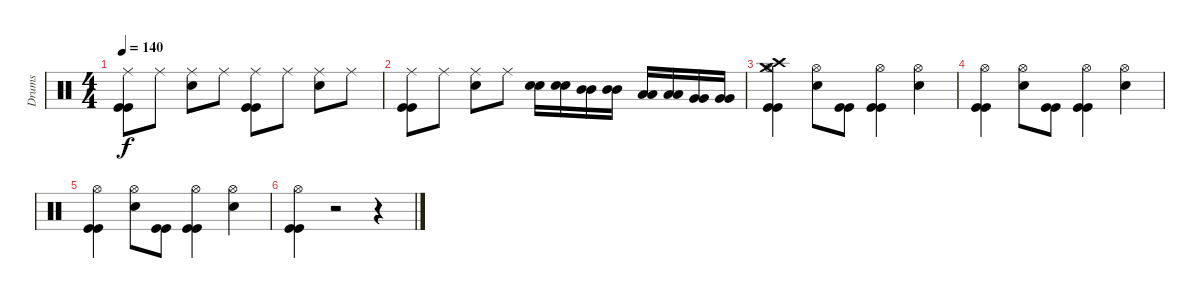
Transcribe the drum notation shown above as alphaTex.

\track ("Drums" "Drums") {instrument percussion}
\staff {score}
\articulation defaults
\ts (4 4)
\tempo 140
\clef neutral
\ks c
("Ride (middle)" "Kick (hit)" "Kick (hit)").8{dy f} "Ride (middle)".8 ("Ride (middle)" "Snare (hit) 2").8 "Ride (middle)".8 ("Ride (middle)" "Kick (hit)" "Kick (hit)").8 "Ride (middle)".8 ("Ride (middle)" "Snare (hit) 2").8 "Ride (middle)".8 |
("Ride (middle)" "Kick (hit)" "Kick (hit)").8 "Ride (middle)".8 ("Ride (middle)" "Snare (hit) 2").8 "Ride (middle)".8 ("Snare (hit) 2" "Snare (hit) 2").16 ("Snare (hit) 2" "Snare (hit) 2").16 ("Mid Tom (hit)" "Mid Tom (hit)").16 ("Mid Tom (hit)" "Mid Tom (hit)").16 ("Low Tom (hit)" "Low Tom (hit)").16 ("Low Tom (hit)" "Low Tom (hit)").16 ("Very Low Tom (hit)" "Very Low Tom (hit)").16 ("Very Low Tom (hit)" "Very Low Tom (hit)").16 |
("Hi-Hat (open)" "Crash high (hit)" "Crash medium (hit)" "Kick (hit)" "Kick (hit)").4 ("Hi-Hat (open)" "Snare (hit) 2").8 ("Kick (hit)" "Kick (hit)").8 ("Hi-Hat (open)" "Kick (hit)" "Kick (hit)").4 ("Hi-Hat (open)" "Snare (hit) 2").4 |
("Hi-Hat (open)" "Kick (hit)" "Kick (hit)").4 ("Hi-Hat (open)" "Snare (hit) 2").8 ("Kick (hit)" "Kick (hit)").8 ("Hi-Hat (open)" "Kick (hit)" "Kick (hit)").4 ("Hi-Hat (open)" "Snare (hit) 2").4 |
("Hi-Hat (open)" "Kick (hit)" "Kick (hit)").4 ("Hi-Hat (open)" "Snare (hit) 2").8 ("Kick (hit)" "Kick (hit)").8 ("Hi-Hat (open)" "Kick (hit)" "Kick (hit)").4 ("Hi-Hat (open)" "Snare (hit) 2").4 |
("Hi-Hat (open)" "Kick (hit)" "Kick (hit)").4 r.2 r.4
